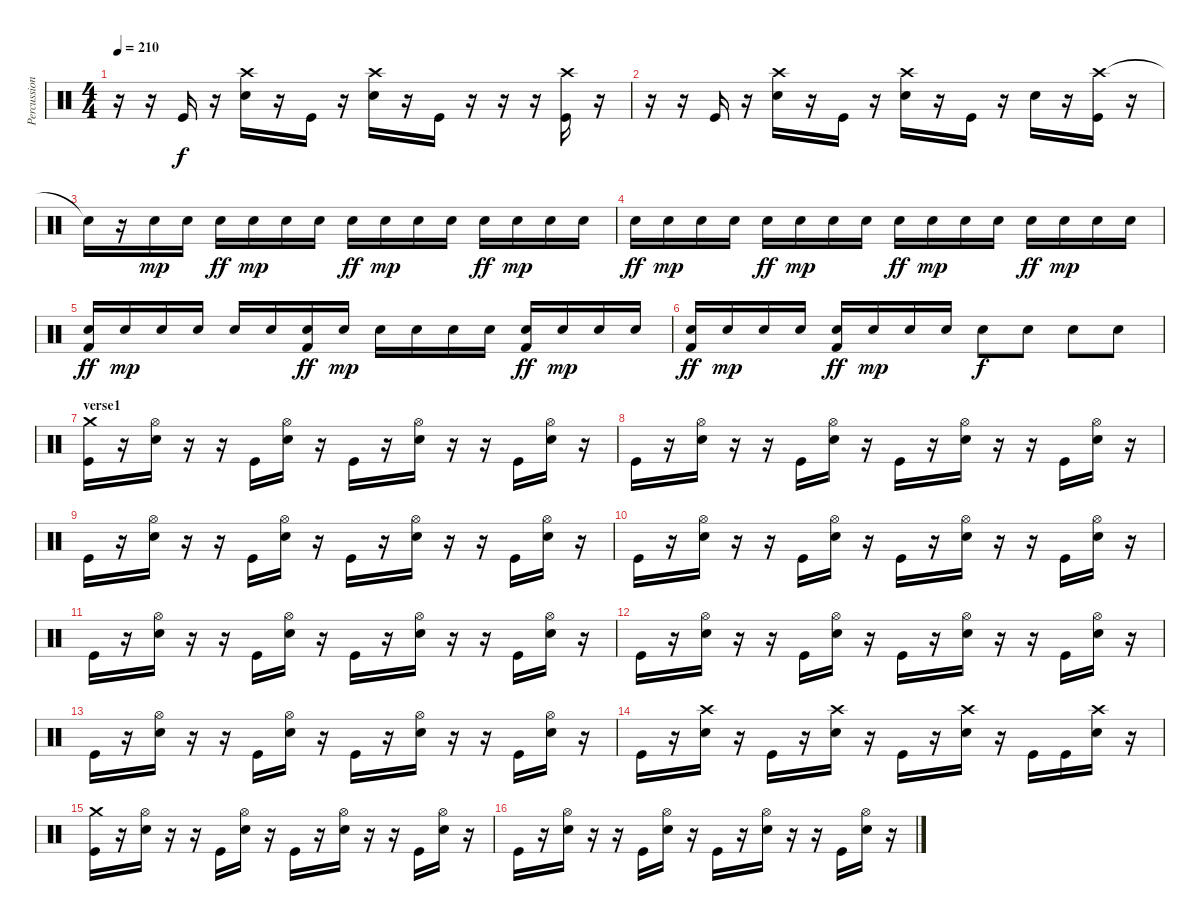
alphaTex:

\track ("Percussion" "Percussion") {instrument percussion}
\staff {score}
\articulation defaults
\ts (4 4)
\tempo 210
\clef neutral
\ks c
r.16{dy f} r.16 "Kick (hit)".16 r.16 ("Crash high (hit)" "Electric Snare (hit)").16 r.16 "Kick (hit)".16 r.16 ("Crash high (hit)" "Electric Snare (hit)").16 r.16 "Kick (hit)".16 r.16 r.16 r.16 ("Crash high (hit)" "Kick (hit)").16 r.16 |
r.16 r.16 "Kick (hit)".16 r.16 ("Crash high (hit)" "Electric Snare (hit)").16 r.16 "Kick (hit)".16 r.16 ("Crash high (hit)" "Electric Snare (hit)").16 r.16 "Kick (hit)".16 r.16 "Electric Snare (hit)".16 r.16 ("Crash high (hit)" "Kick (hit)").16 r.16 |
"Electric Snare (hit)"{t}.16 r.16 "Electric Snare (hit)".16{dy mp} "Electric Snare (hit)".16 "Electric Snare (hit)".16{dy ff} "Electric Snare (hit)".16{dy mp} "Electric Snare (hit)".16 "Electric Snare (hit)".16 "Electric Snare (hit)".16{dy ff} "Electric Snare (hit)".16{dy mp} "Electric Snare (hit)".16 "Electric Snare (hit)".16 "Electric Snare (hit)".16{dy ff} "Electric Snare (hit)".16{dy mp} "Electric Snare (hit)".16 "Electric Snare (hit)".16 |
"Electric Snare (hit)".16{dy ff} "Electric Snare (hit)".16{dy mp} "Electric Snare (hit)".16 "Electric Snare (hit)".16 "Electric Snare (hit)".16{dy ff} "Electric Snare (hit)".16{dy mp} "Electric Snare (hit)".16 "Electric Snare (hit)".16 "Electric Snare (hit)".16{dy ff} "Electric Snare (hit)".16{dy mp} "Electric Snare (hit)".16 "Electric Snare (hit)".16 "Electric Snare (hit)".16{dy ff} "Electric Snare (hit)".16{dy mp} "Electric Snare (hit)".16 "Electric Snare (hit)".16 |
("Kick (hit) 2" "Electric Snare (hit)").16{dy ff} "Electric Snare (hit)".16{dy mp} "Electric Snare (hit)".16 "Electric Snare (hit)".16 "Electric Snare (hit)".16 "Electric Snare (hit)".16 ("Kick (hit) 2" "Electric Snare (hit)").16{dy ff} "Electric Snare (hit)".16{dy mp} "Electric Snare (hit)".16 "Electric Snare (hit)".16 "Electric Snare (hit)".16 "Electric Snare (hit)".16 ("Kick (hit) 2" "Electric Snare (hit)").16{dy ff} "Electric Snare (hit)".16{dy mp} "Electric Snare (hit)".16 "Electric Snare (hit)".16 |
("Kick (hit) 2" "Electric Snare (hit)").16{dy ff} "Electric Snare (hit)".16{dy mp} "Electric Snare (hit)".16 "Electric Snare (hit)".16 ("Kick (hit) 2" "Electric Snare (hit)").16{dy ff} "Electric Snare (hit)".16{dy mp} "Electric Snare (hit)".16 "Electric Snare (hit)".16 "Electric Snare (hit)".8{dy f} "Electric Snare (hit)".8 "Electric Snare (hit)".8 "Electric Snare (hit)".8 |
\section ("" "verse1")
("Crash medium (hit)" "Kick (hit)").16 r.16 ("Hi-Hat (open)" "Electric Snare (hit)").16 r.16 r.16 "Kick (hit)".16 ("Hi-Hat (open)" "Electric Snare (hit)").16 r.16 "Kick (hit)".16 r.16 ("Hi-Hat (open)" "Electric Snare (hit)").16 r.16 r.16 "Kick (hit)".16 ("Hi-Hat (open)" "Electric Snare (hit)").16 r.16 |
"Kick (hit)".16 r.16 ("Hi-Hat (open)" "Electric Snare (hit)").16 r.16 r.16 "Kick (hit)".16 ("Hi-Hat (open)" "Electric Snare (hit)").16 r.16 "Kick (hit)".16 r.16 ("Hi-Hat (open)" "Electric Snare (hit)").16 r.16 r.16 "Kick (hit)".16 ("Hi-Hat (open)" "Electric Snare (hit)").16 r.16 |
"Kick (hit)".16 r.16 ("Hi-Hat (open)" "Electric Snare (hit)").16 r.16 r.16 "Kick (hit)".16 ("Hi-Hat (open)" "Electric Snare (hit)").16 r.16 "Kick (hit)".16 r.16 ("Hi-Hat (open)" "Electric Snare (hit)").16 r.16 r.16 "Kick (hit)".16 ("Hi-Hat (open)" "Electric Snare (hit)").16 r.16 |
"Kick (hit)".16 r.16 ("Hi-Hat (open)" "Electric Snare (hit)").16 r.16 r.16 "Kick (hit)".16 ("Hi-Hat (open)" "Electric Snare (hit)").16 r.16 "Kick (hit)".16 r.16 ("Hi-Hat (open)" "Electric Snare (hit)").16 r.16 r.16 "Kick (hit)".16 ("Hi-Hat (open)" "Electric Snare (hit)").16 r.16 |
"Kick (hit)".16 r.16 ("Hi-Hat (open)" "Electric Snare (hit)").16 r.16 r.16 "Kick (hit)".16 ("Hi-Hat (open)" "Electric Snare (hit)").16 r.16 "Kick (hit)".16 r.16 ("Hi-Hat (open)" "Electric Snare (hit)").16 r.16 r.16 "Kick (hit)".16 ("Hi-Hat (open)" "Electric Snare (hit)").16 r.16 |
"Kick (hit)".16 r.16 ("Hi-Hat (open)" "Electric Snare (hit)").16 r.16 r.16 "Kick (hit)".16 ("Hi-Hat (open)" "Electric Snare (hit)").16 r.16 "Kick (hit)".16 r.16 ("Hi-Hat (open)" "Electric Snare (hit)").16 r.16 r.16 "Kick (hit)".16 ("Hi-Hat (open)" "Electric Snare (hit)").16 r.16 |
"Kick (hit)".16 r.16 ("Hi-Hat (open)" "Electric Snare (hit)").16 r.16 r.16 "Kick (hit)".16 ("Hi-Hat (open)" "Electric Snare (hit)").16 r.16 "Kick (hit)".16 r.16 ("Hi-Hat (open)" "Electric Snare (hit)").16 r.16 r.16 "Kick (hit)".16 ("Hi-Hat (open)" "Electric Snare (hit)").16 r.16 |
"Kick (hit)".16 r.16 ("Crash high (hit)" "Electric Snare (hit)").16 r.16 "Kick (hit)".16 r.16 ("Crash high (hit)" "Electric Snare (hit)").16 r.16 "Kick (hit)".16 r.16 ("Crash high (hit)" "Electric Snare (hit)").16 r.16 "Kick (hit)".16 "Kick (hit)".16 ("Crash high (hit)" "Electric Snare (hit)").16 r.16 |
("Crash medium (hit)" "Kick (hit)").16 r.16 ("Hi-Hat (open)" "Electric Snare (hit)").16 r.16 r.16 "Kick (hit)".16 ("Hi-Hat (open)" "Electric Snare (hit)").16 r.16 "Kick (hit)".16 r.16 ("Hi-Hat (open)" "Electric Snare (hit)").16 r.16 r.16 "Kick (hit)".16 ("Hi-Hat (open)" "Electric Snare (hit)").16 r.16 |
"Kick (hit)".16 r.16 ("Hi-Hat (open)" "Electric Snare (hit)").16 r.16 r.16 "Kick (hit)".16 ("Hi-Hat (open)" "Electric Snare (hit)").16 r.16 "Kick (hit)".16 r.16 ("Hi-Hat (open)" "Electric Snare (hit)").16 r.16 r.16 "Kick (hit)".16 ("Hi-Hat (open)" "Electric Snare (hit)").16 r.16
